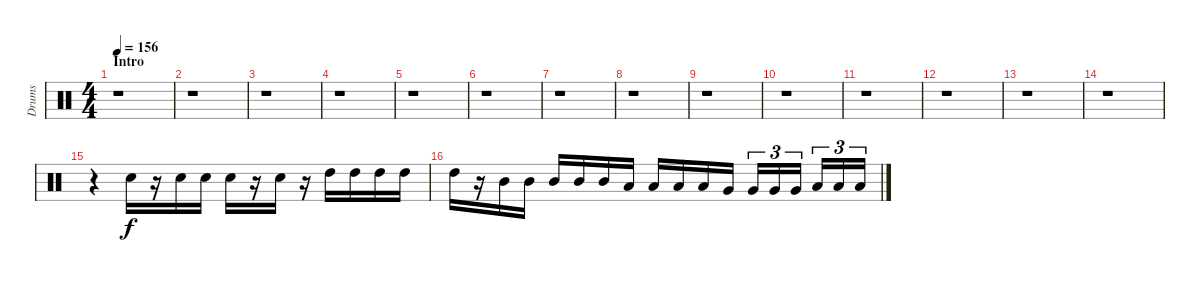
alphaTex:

\track ("Drums" "Drums") {instrument percussion}
\staff {score}
\articulation defaults
\ts (4 4)
\section ("" "Intro")
\tempo 156
\clef neutral
\ks c
r.1{dy f} |
r.1 |
r.1 |
r.1 |
r.1 |
r.1 |
r.1 |
r.1 |
r.1 |
r.1 |
r.1 |
r.1 |
r.1 |
r.1 |
r.4 "Snare (hit) 2".16 r.16 "Snare (hit) 2".16 "Snare (hit) 2".16 "Snare (hit) 2".16 r.16 "Snare (hit) 2".16 r.16 "High Tom (hit)".16 "High Tom (hit)".16 "High Tom (hit)".16 "High Tom (hit)".16 |
"High Tom (hit)".16 r.16 "Mid Tom (hit)".16 "Mid Tom (hit)".16 "Mid Tom (hit)".16 "Mid Tom (hit)".16 "Mid Tom (hit)".16 "Low Tom (hit)".16 "Low Tom (hit)".16 "Low Tom (hit)".16 "Low Tom (hit)".16 "Very Low Tom (hit)".16 "Very Low Tom (hit)".16{tu (3 2)} "Very Low Tom (hit)".16{tu (3 2)} "Very Low Tom (hit)".16{tu (3 2)} "Low Floor Tom (hit)".16{tu (3 2)} "Low Floor Tom (hit)".16{tu (3 2)} "Low Floor Tom (hit)".16{tu (3 2)}
